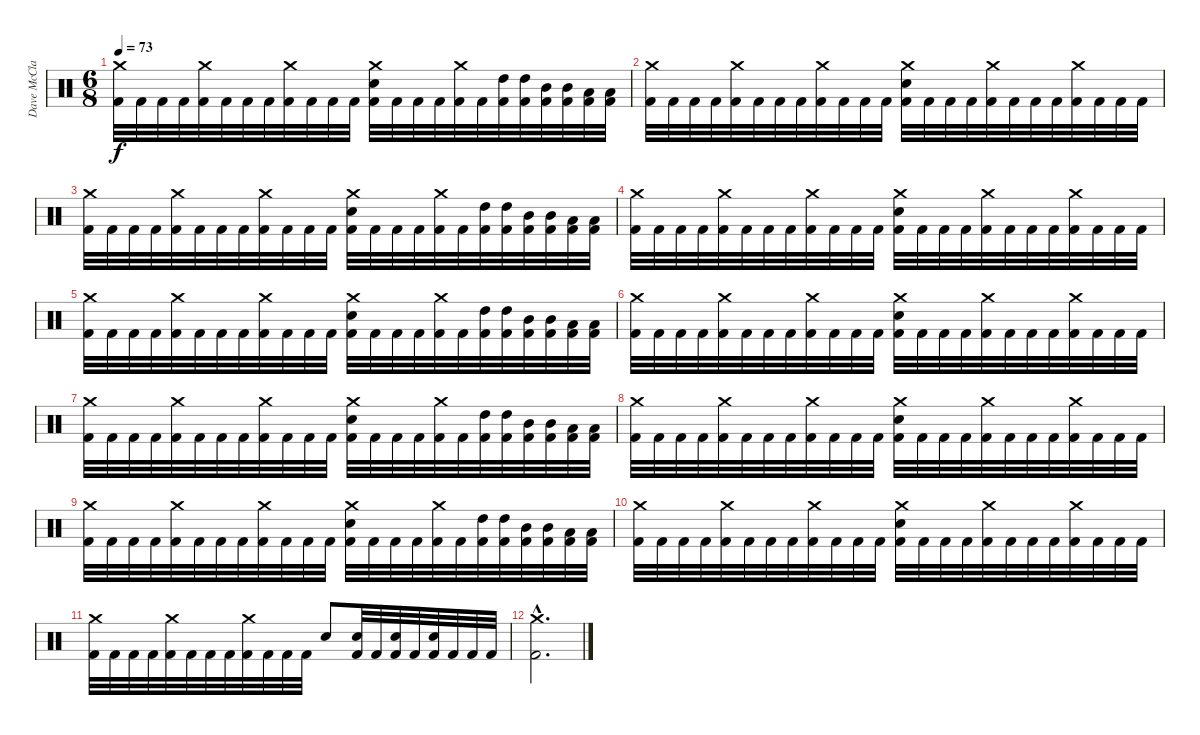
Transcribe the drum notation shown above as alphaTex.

\track ("Dave McClain" "Dave McCla") {instrument percussion}
\staff {score}
\articulation defaults
\ts (6 8)
\tempo 73
\clef neutral
\ks c
("Crash medium (hit)" "Kick (hit) 2").32{dy f} "Kick (hit) 2".32 "Kick (hit) 2".32 "Kick (hit) 2".32 ("Crash medium (hit)" "Kick (hit) 2").32 "Kick (hit) 2".32 "Kick (hit) 2".32 "Kick (hit) 2".32 ("Crash medium (hit)" "Kick (hit) 2").32 "Kick (hit) 2".32 "Kick (hit) 2".32 "Kick (hit) 2".32 ("Crash medium (hit)" "Snare (hit) 2" "Kick (hit) 2").32 "Kick (hit) 2".32 "Kick (hit) 2".32 "Kick (hit) 2".32 ("Crash medium (hit)" "Kick (hit) 2").32 "Kick (hit) 2".32 ("High Tom (hit)" "Kick (hit) 2").32 ("High Tom (hit)" "Kick (hit) 2").32 ("Mid Tom (hit)" "Kick (hit) 2").32 ("Mid Tom (hit)" "Kick (hit) 2").32 ("Low Tom (hit)" "Kick (hit) 2").32 ("Low Tom (hit)" "Kick (hit) 2").32 |
("Crash medium (hit)" "Kick (hit) 2").32 "Kick (hit) 2".32 "Kick (hit) 2".32 "Kick (hit) 2".32 ("Crash medium (hit)" "Kick (hit) 2").32 "Kick (hit) 2".32 "Kick (hit) 2".32 "Kick (hit) 2".32 ("Crash medium (hit)" "Kick (hit) 2").32 "Kick (hit) 2".32 "Kick (hit) 2".32 "Kick (hit) 2".32 ("Crash medium (hit)" "Snare (hit) 2" "Kick (hit) 2").32 "Kick (hit) 2".32 "Kick (hit) 2".32 "Kick (hit) 2".32 ("Crash medium (hit)" "Kick (hit) 2").32 "Kick (hit) 2".32 "Kick (hit) 2".32 "Kick (hit) 2".32 ("Crash medium (hit)" "Kick (hit) 2").32 "Kick (hit) 2".32 "Kick (hit) 2".32 "Kick (hit) 2".32 |
("Crash medium (hit)" "Kick (hit) 2").32 "Kick (hit) 2".32 "Kick (hit) 2".32 "Kick (hit) 2".32 ("Crash medium (hit)" "Kick (hit) 2").32 "Kick (hit) 2".32 "Kick (hit) 2".32 "Kick (hit) 2".32 ("Crash medium (hit)" "Kick (hit) 2").32 "Kick (hit) 2".32 "Kick (hit) 2".32 "Kick (hit) 2".32 ("Crash medium (hit)" "Snare (hit) 2" "Kick (hit) 2").32 "Kick (hit) 2".32 "Kick (hit) 2".32 "Kick (hit) 2".32 ("Crash medium (hit)" "Kick (hit) 2").32 "Kick (hit) 2".32 ("High Tom (hit)" "Kick (hit) 2").32 ("High Tom (hit)" "Kick (hit) 2").32 ("Mid Tom (hit)" "Kick (hit) 2").32 ("Mid Tom (hit)" "Kick (hit) 2").32 ("Low Tom (hit)" "Kick (hit) 2").32 ("Low Tom (hit)" "Kick (hit) 2").32 |
("Crash medium (hit)" "Kick (hit) 2").32 "Kick (hit) 2".32 "Kick (hit) 2".32 "Kick (hit) 2".32 ("Crash medium (hit)" "Kick (hit) 2").32 "Kick (hit) 2".32 "Kick (hit) 2".32 "Kick (hit) 2".32 ("Crash medium (hit)" "Kick (hit) 2").32 "Kick (hit) 2".32 "Kick (hit) 2".32 "Kick (hit) 2".32 ("Crash medium (hit)" "Snare (hit) 2" "Kick (hit) 2").32 "Kick (hit) 2".32 "Kick (hit) 2".32 "Kick (hit) 2".32 ("Crash medium (hit)" "Kick (hit) 2").32 "Kick (hit) 2".32 "Kick (hit) 2".32 "Kick (hit) 2".32 ("Crash medium (hit)" "Kick (hit) 2").32 "Kick (hit) 2".32 "Kick (hit) 2".32 "Kick (hit) 2".32 |
("Crash medium (hit)" "Kick (hit) 2").32 "Kick (hit) 2".32 "Kick (hit) 2".32 "Kick (hit) 2".32 ("Crash medium (hit)" "Kick (hit) 2").32 "Kick (hit) 2".32 "Kick (hit) 2".32 "Kick (hit) 2".32 ("Crash medium (hit)" "Kick (hit) 2").32 "Kick (hit) 2".32 "Kick (hit) 2".32 "Kick (hit) 2".32 ("Crash medium (hit)" "Snare (hit) 2" "Kick (hit) 2").32 "Kick (hit) 2".32 "Kick (hit) 2".32 "Kick (hit) 2".32 ("Crash medium (hit)" "Kick (hit) 2").32 "Kick (hit) 2".32 ("High Tom (hit)" "Kick (hit) 2").32 ("High Tom (hit)" "Kick (hit) 2").32 ("Mid Tom (hit)" "Kick (hit) 2").32 ("Mid Tom (hit)" "Kick (hit) 2").32 ("Low Tom (hit)" "Kick (hit) 2").32 ("Low Tom (hit)" "Kick (hit) 2").32 |
("Crash medium (hit)" "Kick (hit) 2").32 "Kick (hit) 2".32 "Kick (hit) 2".32 "Kick (hit) 2".32 ("Crash medium (hit)" "Kick (hit) 2").32 "Kick (hit) 2".32 "Kick (hit) 2".32 "Kick (hit) 2".32 ("Crash medium (hit)" "Kick (hit) 2").32 "Kick (hit) 2".32 "Kick (hit) 2".32 "Kick (hit) 2".32 ("Crash medium (hit)" "Snare (hit) 2" "Kick (hit) 2").32 "Kick (hit) 2".32 "Kick (hit) 2".32 "Kick (hit) 2".32 ("Crash medium (hit)" "Kick (hit) 2").32 "Kick (hit) 2".32 "Kick (hit) 2".32 "Kick (hit) 2".32 ("Crash medium (hit)" "Kick (hit) 2").32 "Kick (hit) 2".32 "Kick (hit) 2".32 "Kick (hit) 2".32 |
("Crash medium (hit)" "Kick (hit) 2").32 "Kick (hit) 2".32 "Kick (hit) 2".32 "Kick (hit) 2".32 ("Crash medium (hit)" "Kick (hit) 2").32 "Kick (hit) 2".32 "Kick (hit) 2".32 "Kick (hit) 2".32 ("Crash medium (hit)" "Kick (hit) 2").32 "Kick (hit) 2".32 "Kick (hit) 2".32 "Kick (hit) 2".32 ("Crash medium (hit)" "Snare (hit) 2" "Kick (hit) 2").32 "Kick (hit) 2".32 "Kick (hit) 2".32 "Kick (hit) 2".32 ("Crash medium (hit)" "Kick (hit) 2").32 "Kick (hit) 2".32 ("High Tom (hit)" "Kick (hit) 2").32 ("High Tom (hit)" "Kick (hit) 2").32 ("Mid Tom (hit)" "Kick (hit) 2").32 ("Mid Tom (hit)" "Kick (hit) 2").32 ("Low Tom (hit)" "Kick (hit) 2").32 ("Low Tom (hit)" "Kick (hit) 2").32 |
("Crash medium (hit)" "Kick (hit) 2").32 "Kick (hit) 2".32 "Kick (hit) 2".32 "Kick (hit) 2".32 ("Crash medium (hit)" "Kick (hit) 2").32 "Kick (hit) 2".32 "Kick (hit) 2".32 "Kick (hit) 2".32 ("Crash medium (hit)" "Kick (hit) 2").32 "Kick (hit) 2".32 "Kick (hit) 2".32 "Kick (hit) 2".32 ("Crash medium (hit)" "Snare (hit) 2" "Kick (hit) 2").32 "Kick (hit) 2".32 "Kick (hit) 2".32 "Kick (hit) 2".32 ("Crash medium (hit)" "Kick (hit) 2").32 "Kick (hit) 2".32 "Kick (hit) 2".32 "Kick (hit) 2".32 ("Crash medium (hit)" "Kick (hit) 2").32 "Kick (hit) 2".32 "Kick (hit) 2".32 "Kick (hit) 2".32 |
("Crash medium (hit)" "Kick (hit) 2").32 "Kick (hit) 2".32 "Kick (hit) 2".32 "Kick (hit) 2".32 ("Crash medium (hit)" "Kick (hit) 2").32 "Kick (hit) 2".32 "Kick (hit) 2".32 "Kick (hit) 2".32 ("Crash medium (hit)" "Kick (hit) 2").32 "Kick (hit) 2".32 "Kick (hit) 2".32 "Kick (hit) 2".32 ("Crash medium (hit)" "Snare (hit) 2" "Kick (hit) 2").32 "Kick (hit) 2".32 "Kick (hit) 2".32 "Kick (hit) 2".32 ("Crash medium (hit)" "Kick (hit) 2").32 "Kick (hit) 2".32 ("High Tom (hit)" "Kick (hit) 2").32 ("High Tom (hit)" "Kick (hit) 2").32 ("Mid Tom (hit)" "Kick (hit) 2").32 ("Mid Tom (hit)" "Kick (hit) 2").32 ("Low Tom (hit)" "Kick (hit) 2").32 ("Low Tom (hit)" "Kick (hit) 2").32 |
("Crash medium (hit)" "Kick (hit) 2").32 "Kick (hit) 2".32 "Kick (hit) 2".32 "Kick (hit) 2".32 ("Crash medium (hit)" "Kick (hit) 2").32 "Kick (hit) 2".32 "Kick (hit) 2".32 "Kick (hit) 2".32 ("Crash medium (hit)" "Kick (hit) 2").32 "Kick (hit) 2".32 "Kick (hit) 2".32 "Kick (hit) 2".32 ("Crash medium (hit)" "Snare (hit) 2" "Kick (hit) 2").32 "Kick (hit) 2".32 "Kick (hit) 2".32 "Kick (hit) 2".32 ("Crash medium (hit)" "Kick (hit) 2").32 "Kick (hit) 2".32 "Kick (hit) 2".32 "Kick (hit) 2".32 ("Crash medium (hit)" "Kick (hit) 2").32 "Kick (hit) 2".32 "Kick (hit) 2".32 "Kick (hit) 2".32 |
("Crash medium (hit)" "Kick (hit) 2").32 "Kick (hit) 2".32 "Kick (hit) 2".32 "Kick (hit) 2".32 ("Crash medium (hit)" "Kick (hit) 2").32 "Kick (hit) 2".32 "Kick (hit) 2".32 "Kick (hit) 2".32 ("Crash medium (hit)" "Kick (hit) 2").32 "Kick (hit) 2".32 "Kick (hit) 2".32 "Kick (hit) 2".32 "Snare (hit) 2".8 ("Snare (hit) 2" "Kick (hit) 2").32 "Kick (hit) 2".32 ("Snare (hit) 2" "Kick (hit) 2").32 "Kick (hit) 2".32 ("Snare (hit) 2" "Kick (hit) 2").32 "Kick (hit) 2".32 "Kick (hit) 2".32 "Kick (hit) 2".32 |
("Crash medium (hit)"{hac} "Kick (hit) 2"{hac}).2{d}
